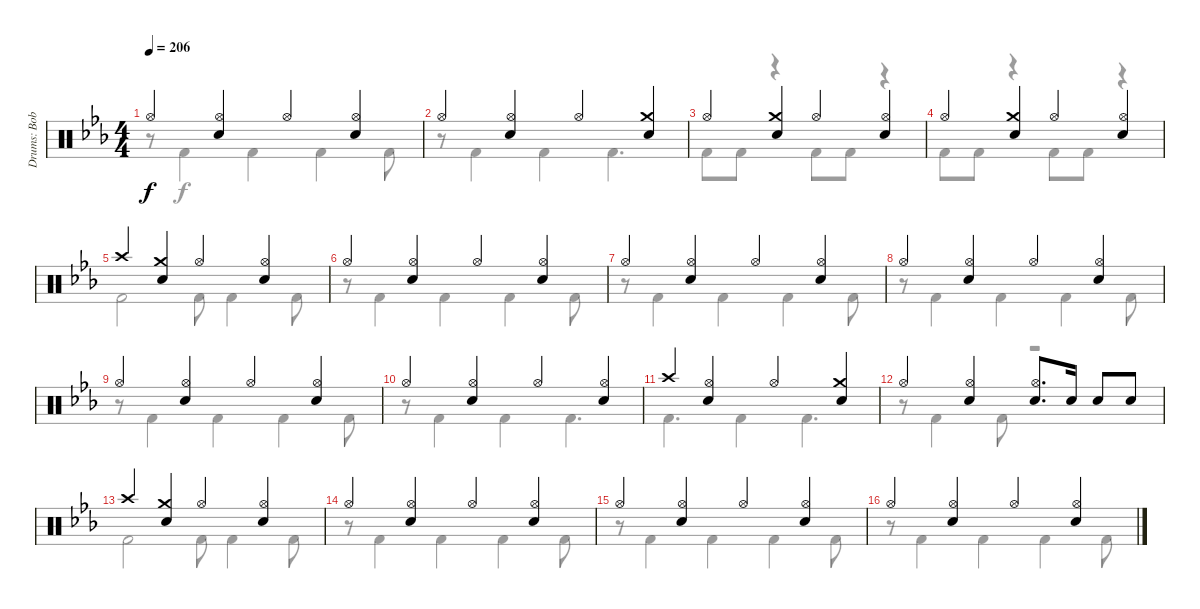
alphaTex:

\track ("Drums: Bobby" "Drums: Bob") {instrument percussion}
\staff {score}
\articulation defaults
\voice
\ts (4 4)
\tempo 206
\clef neutral
\ks eb "Hi-Hat (open)".4{dy f}
("Hi-Hat (open)" "Snare (hit) 2").4 "Hi-Hat (open)".4 ("Hi-Hat (open)" "Snare (hit) 2").4 |
"Hi-Hat (open)".4 ("Hi-Hat (open)" "Snare (hit) 2").4 "Hi-Hat (open)".4 ("Crash medium (hit)" "Snare (hit) 2").4 |
"Hi-Hat (open)".4 ("Crash medium (hit)" "Snare (hit) 2").4 "Hi-Hat (open)".4 ("Hi-Hat (open)" "Snare (hit) 2").4 |
"Hi-Hat (open)".4 ("Crash medium (hit)" "Snare (hit) 2").4 "Hi-Hat (open)".4 ("Hi-Hat (open)" "Snare (hit) 2").4 |
"Crash high (hit)".4 ("Crash medium (hit)" "Snare (hit) 2").4 "Hi-Hat (open)".4 ("Hi-Hat (open)" "Snare (hit) 2").4 |
"Hi-Hat (open)".4 ("Hi-Hat (open)" "Snare (hit) 2").4 "Hi-Hat (open)".4 ("Hi-Hat (open)" "Snare (hit) 2").4 |
"Hi-Hat (open)".4 ("Hi-Hat (open)" "Snare (hit) 2").4 "Hi-Hat (open)".4 ("Hi-Hat (open)" "Snare (hit) 2").4 |
"Hi-Hat (open)".4 ("Hi-Hat (open)" "Snare (hit) 2").4 "Hi-Hat (open)".4 ("Hi-Hat (open)" "Snare (hit) 2").4 |
"Hi-Hat (open)".4 ("Hi-Hat (open)" "Snare (hit) 2").4 "Hi-Hat (open)".4 ("Hi-Hat (open)" "Snare (hit) 2").4 |
"Hi-Hat (open)".4 ("Hi-Hat (open)" "Snare (hit) 2").4 "Hi-Hat (open)".4 ("Hi-Hat (open)" "Snare (hit) 2").4 |
"Crash high (hit)".4 ("Hi-Hat (open)" "Snare (hit) 2").4 "Hi-Hat (open)".4 ("Crash medium (hit)" "Snare (hit) 2").4 |
"Hi-Hat (open)".4 ("Hi-Hat (open)" "Snare (hit) 2").4 ("Hi-Hat (open)" "Electric Snare (hit)").8{d} "Electric Snare (hit)".16 "Snare (hit) 2".8 "Snare (hit) 2".8 |
"Crash high (hit)".4 ("Crash medium (hit)" "Snare (hit) 2").4 "Hi-Hat (open)".4 ("Hi-Hat (open)" "Snare (hit) 2").4 |
"Hi-Hat (open)".4 ("Hi-Hat (open)" "Snare (hit) 2").4 "Hi-Hat (open)".4 ("Hi-Hat (open)" "Snare (hit) 2").4 |
"Hi-Hat (open)".4 ("Hi-Hat (open)" "Snare (hit) 2").4 "Hi-Hat (open)".4 ("Hi-Hat (open)" "Snare (hit) 2").4 |
"Hi-Hat (open)".4 ("Hi-Hat (open)" "Snare (hit) 2").4 "Hi-Hat (open)".4 ("Hi-Hat (open)" "Snare (hit) 2").4
\voice
\clef neutral
\ottava regular
\simile none
\ks eb
r.8{dy f} "Kick (hit) 2".4 "Kick (hit) 2".4 "Kick (hit) 2".4 "Kick (hit) 2".8 |
r.8 "Kick (hit) 2".4 "Kick (hit) 2".4 "Kick (hit) 2".4{d} |
"Kick (hit) 2".8 "Kick (hit) 2".8 r.4 "Kick (hit) 2".8 "Kick (hit) 2".8 r.4 |
"Kick (hit) 2".8 "Kick (hit) 2".8 r.4 "Kick (hit) 2".8 "Kick (hit) 2".8 r.4 |
"Kick (hit) 2".2 "Kick (hit) 2".8 "Kick (hit) 2".4 "Kick (hit) 2".8 |
r.8 "Kick (hit) 2".4 "Kick (hit) 2".4 "Kick (hit) 2".4 "Kick (hit) 2".8 |
r.8 "Kick (hit) 2".4 "Kick (hit) 2".4 "Kick (hit) 2".4 "Kick (hit) 2".8 |
r.8 "Kick (hit) 2".4 "Kick (hit) 2".4 "Kick (hit) 2".4 "Kick (hit) 2".8 |
r.8 "Kick (hit) 2".4 "Kick (hit) 2".4 "Kick (hit) 2".4 "Kick (hit) 2".8 |
r.8 "Kick (hit) 2".4 "Kick (hit) 2".4 "Kick (hit) 2".4{d} |
"Kick (hit) 2".4{d} "Kick (hit) 2".4 "Kick (hit) 2".4{d} |
r.8 "Kick (hit) 2".4 "Kick (hit) 2".8 r.2 |
"Kick (hit) 2".2 "Kick (hit) 2".8 "Kick (hit) 2".4 "Kick (hit) 2".8 |
r.8 "Kick (hit) 2".4 "Kick (hit) 2".4 "Kick (hit) 2".4 "Kick (hit) 2".8 |
r.8 "Kick (hit) 2".4 "Kick (hit) 2".4 "Kick (hit) 2".4 "Kick (hit) 2".8 |
r.8 "Kick (hit) 2".4 "Kick (hit) 2".4 "Kick (hit) 2".4 "Kick (hit) 2".8
